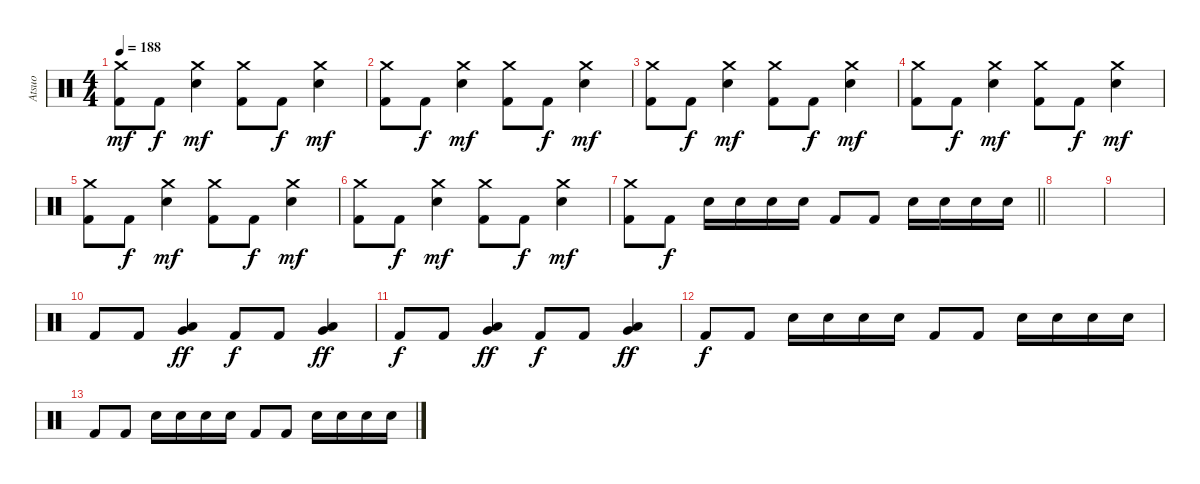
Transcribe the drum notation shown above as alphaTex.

\track ("Atsuo" "Atsuo") {instrument percussion}
\staff {score}
\articulation defaults
\ts (4 4)
\tempo 188
\clef neutral
\ks c
("Crash medium (hit)" "Kick (hit) 2").8{dy mf} "Kick (hit) 2".8{dy f} ("Crash medium (hit)" "Electric Snare (hit)").4{dy mf} ("Crash medium (hit)" "Kick (hit) 2").8 "Kick (hit) 2".8{dy f} ("Crash medium (hit)" "Electric Snare (hit)").4{dy mf} |
("Crash medium (hit)" "Kick (hit) 2").8 "Kick (hit) 2".8{dy f} ("Crash medium (hit)" "Electric Snare (hit)").4{dy mf} ("Crash medium (hit)" "Kick (hit) 2").8 "Kick (hit) 2".8{dy f} ("Crash medium (hit)" "Electric Snare (hit)").4{dy mf} |
("Crash medium (hit)" "Kick (hit) 2").8 "Kick (hit) 2".8{dy f} ("Crash medium (hit)" "Electric Snare (hit)").4{dy mf} ("Crash medium (hit)" "Kick (hit) 2").8 "Kick (hit) 2".8{dy f} ("Crash medium (hit)" "Electric Snare (hit)").4{dy mf} |
("Crash medium (hit)" "Kick (hit) 2").8 "Kick (hit) 2".8{dy f} ("Crash medium (hit)" "Electric Snare (hit)").4{dy mf} ("Crash medium (hit)" "Kick (hit) 2").8 "Kick (hit) 2".8{dy f} ("Crash medium (hit)" "Electric Snare (hit)").4{dy mf} |
("Crash medium (hit)" "Kick (hit) 2").8 "Kick (hit) 2".8{dy f} ("Crash medium (hit)" "Electric Snare (hit)").4{dy mf} ("Crash medium (hit)" "Kick (hit) 2").8 "Kick (hit) 2".8{dy f} ("Crash medium (hit)" "Electric Snare (hit)").4{dy mf} |
("Crash medium (hit)" "Kick (hit) 2").8 "Kick (hit) 2".8{dy f} ("Crash medium (hit)" "Electric Snare (hit)").4{dy mf} ("Crash medium (hit)" "Kick (hit) 2").8 "Kick (hit) 2".8{dy f} ("Crash medium (hit)" "Electric Snare (hit)").4{dy mf} |
\barLineRight lightlight
("Crash medium (hit)" "Kick (hit) 2").8 "Kick (hit) 2".8{dy f} "Electric Snare (hit)".16 "Electric Snare (hit)".16 "Electric Snare (hit)".16 "Electric Snare (hit)".16 "Kick (hit) 2".8 "Kick (hit) 2".8 "Electric Snare (hit)".16 "Electric Snare (hit)".16 "Electric Snare (hit)".16 "Electric Snare (hit)".16 |
\section ("" "")
|
|
"Kick (hit) 2".8 "Kick (hit) 2".8 ("Very Low Tom (hit)" "Low Floor Tom (hit)").4{dy ff} "Kick (hit) 2".8{dy f} "Kick (hit) 2".8 ("Very Low Tom (hit)" "Low Floor Tom (hit)").4{dy ff} |
"Kick (hit) 2".8{dy f} "Kick (hit) 2".8 ("Very Low Tom (hit)" "Low Floor Tom (hit)").4{dy ff} "Kick (hit) 2".8{dy f} "Kick (hit) 2".8 ("Very Low Tom (hit)" "Low Floor Tom (hit)").4{dy ff} |
"Kick (hit) 2".8{dy f} "Kick (hit) 2".8 "Electric Snare (hit)".16 "Electric Snare (hit)".16 "Electric Snare (hit)".16 "Electric Snare (hit)".16 "Kick (hit) 2".8 "Kick (hit) 2".8 "Electric Snare (hit)".16 "Electric Snare (hit)".16 "Electric Snare (hit)".16 "Electric Snare (hit)".16 |
"Kick (hit) 2".8 "Kick (hit) 2".8 "Electric Snare (hit)".16 "Electric Snare (hit)".16 "Electric Snare (hit)".16 "Electric Snare (hit)".16 "Kick (hit) 2".8 "Kick (hit) 2".8 "Electric Snare (hit)".16 "Electric Snare (hit)".16 "Electric Snare (hit)".16 "Electric Snare (hit)".16
